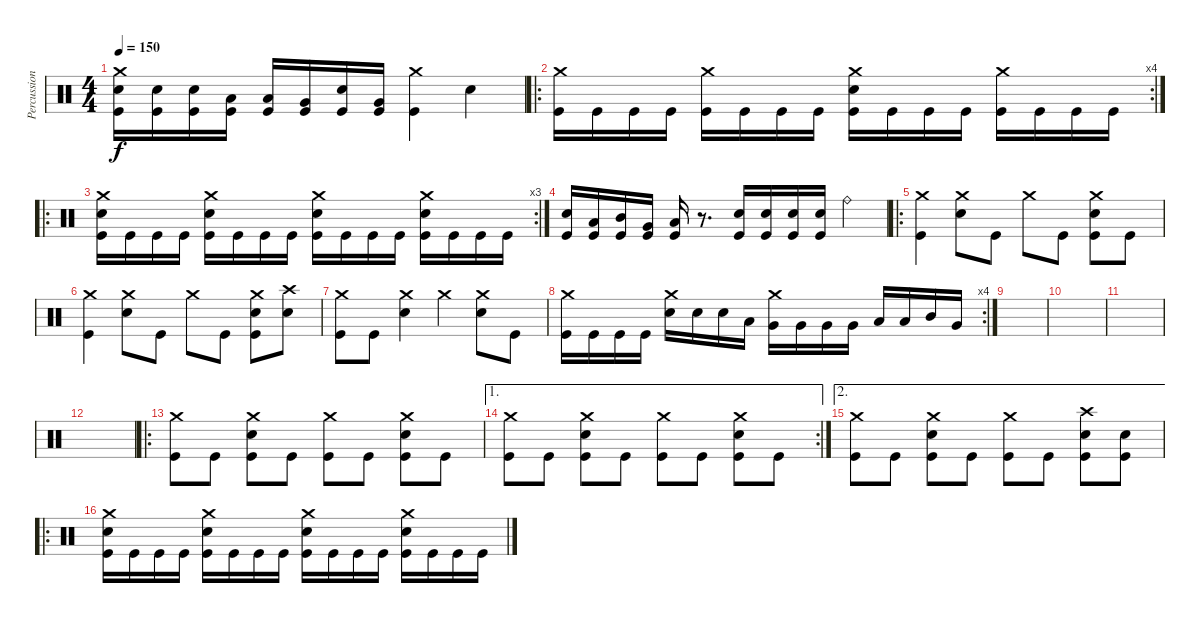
\track ("Percussion" "Percussion") {instrument percussion}
\staff {score}
\articulation defaults
\ts (4 4)
\tempo 150
\clef neutral
\ks c
("Crash medium (hit)" "Electric Snare (hit)" "Kick (hit)").16{dy f} ("Electric Snare (hit)" "Kick (hit)").16 ("Electric Snare (hit)" "Kick (hit)").16 ("Low Tom (hit)" "Kick (hit)").16 ("Low Tom (hit)" "Kick (hit)").16 ("Very Low Tom (hit)" "Kick (hit)").16 ("Electric Snare (hit)" "Kick (hit)").16 ("Very Low Tom (hit)" "Kick (hit)").16 ("Crash medium (hit)" "Kick (hit)").4 "Electric Snare (hit)".4 |
\ro
\rc 4
("Crash medium (hit)" "Kick (hit)").16 "Kick (hit)".16 "Kick (hit)".16 "Kick (hit)".16 ("Crash medium (hit)" "Kick (hit)").16 "Kick (hit)".16 "Kick (hit)".16 "Kick (hit)".16 ("Crash medium (hit)" "Electric Snare (hit)" "Kick (hit)").16 "Kick (hit)".16 "Kick (hit)".16 "Kick (hit)".16 ("Crash medium (hit)" "Kick (hit)").16 "Kick (hit)".16 "Kick (hit)".16 "Kick (hit)".16 |
\ro
\rc 3
("Crash medium (hit)" "Electric Snare (hit)" "Kick (hit)").16 "Kick (hit)".16 "Kick (hit)".16 "Kick (hit)".16 ("Crash medium (hit)" "Electric Snare (hit)" "Kick (hit)").16 "Kick (hit)".16 "Kick (hit)".16 "Kick (hit)".16 ("Crash medium (hit)" "Electric Snare (hit)" "Kick (hit)").16 "Kick (hit)".16 "Kick (hit)".16 "Kick (hit)".16 ("Crash medium (hit)" "Electric Snare (hit)" "Kick (hit)").16 "Kick (hit)".16 "Kick (hit)".16 "Kick (hit)".16 |
("Electric Snare (hit)" "Kick (hit)").16 ("Low Tom (hit)" "Kick (hit)").16 ("Mid Tom (hit)" "Kick (hit)").16 ("Very Low Tom (hit)" "Kick (hit)").16 ("Low Floor Tom (hit)" "Kick (hit)").16 r.8{d} ("Electric Snare (hit)" "Kick (hit)").16 ("Electric Snare (hit)" "Kick (hit)").16 ("Electric Snare (hit)" "Kick (hit)").16 ("Electric Snare (hit)" "Kick (hit)").16 "Ride (bell)".4 |
\ro
("Crash medium (hit)" "Kick (hit)").4 ("Crash medium (hit)" "Electric Snare (hit)").8 "Kick (hit)".8 "Crash medium (hit)".8 "Kick (hit)".8 ("Crash medium (hit)" "Electric Snare (hit)" "Kick (hit)").8 "Kick (hit)".8 |
("Crash medium (hit)" "Kick (hit)").4 ("Crash medium (hit)" "Electric Snare (hit)").8 "Kick (hit)".8 "Crash medium (hit)".8 "Kick (hit)".8 ("Crash medium (hit)" "Electric Snare (hit)" "Kick (hit)").8 ("Crash high (hit)" "Electric Snare (hit)").8 |
("Crash medium (hit)" "Kick (hit)").8 "Kick (hit)".8 ("Crash medium (hit)" "Electric Snare (hit)").4 "Crash medium (hit)".4 ("Crash medium (hit)" "Electric Snare (hit)").8 "Kick (hit)".8 |
\rc 4
("Crash medium (hit)" "Kick (hit)").16 "Kick (hit)".16 "Kick (hit)".16 "Kick (hit)".16 ("Crash medium (hit)" "Electric Snare (hit)").16 "Electric Snare (hit)".16 "Electric Snare (hit)".16 "Low Tom (hit)".16 ("Crash medium (hit)" "Very Low Tom (hit)").16 "Very Low Tom (hit)".16 "Very Low Tom (hit)".16 "Very Low Tom (hit)".16 "Low Floor Tom (hit)".16 "Low Tom (hit)".16 "Mid Tom (hit)".16 "Very Low Tom (hit)".16 |
|
|
|
|
\ro
("Crash medium (hit)" "Kick (hit)").8 "Kick (hit)".8 ("Crash medium (hit)" "Electric Snare (hit)" "Kick (hit)").8 "Kick (hit)".8 ("Crash medium (hit)" "Kick (hit)").8 "Kick (hit)".8 ("Crash medium (hit)" "Electric Snare (hit)" "Kick (hit)").8 "Kick (hit)".8 |
\ae 1
\rc 2
("Crash medium (hit)" "Kick (hit)").8 "Kick (hit)".8 ("Crash medium (hit)" "Electric Snare (hit)" "Kick (hit)").8 "Kick (hit)".8 ("Crash medium (hit)" "Kick (hit)").8 "Kick (hit)".8 ("Crash medium (hit)" "Electric Snare (hit)" "Kick (hit)").8 "Kick (hit)".8 |
\ae 2
("Crash medium (hit)" "Kick (hit)").8 "Kick (hit)".8 ("Crash medium (hit)" "Electric Snare (hit)" "Kick (hit)").8 "Kick (hit)".8 ("Crash medium (hit)" "Kick (hit)").8 "Kick (hit)".8 ("Crash high (hit)" "Electric Snare (hit)" "Kick (hit)").8 ("Electric Snare (hit)" "Kick (hit)").8 |
\ro
("Crash medium (hit)" "Electric Snare (hit)" "Kick (hit)").16 "Kick (hit)".16 "Kick (hit)".16 "Kick (hit)".16 ("Crash medium (hit)" "Electric Snare (hit)" "Kick (hit)").16 "Kick (hit)".16 "Kick (hit)".16 "Kick (hit)".16 ("Crash medium (hit)" "Electric Snare (hit)" "Kick (hit)").16 "Kick (hit)".16 "Kick (hit)".16 "Kick (hit)".16 ("Crash medium (hit)" "Electric Snare (hit)" "Kick (hit)").16 "Kick (hit)".16 "Kick (hit)".16 "Kick (hit)".16
